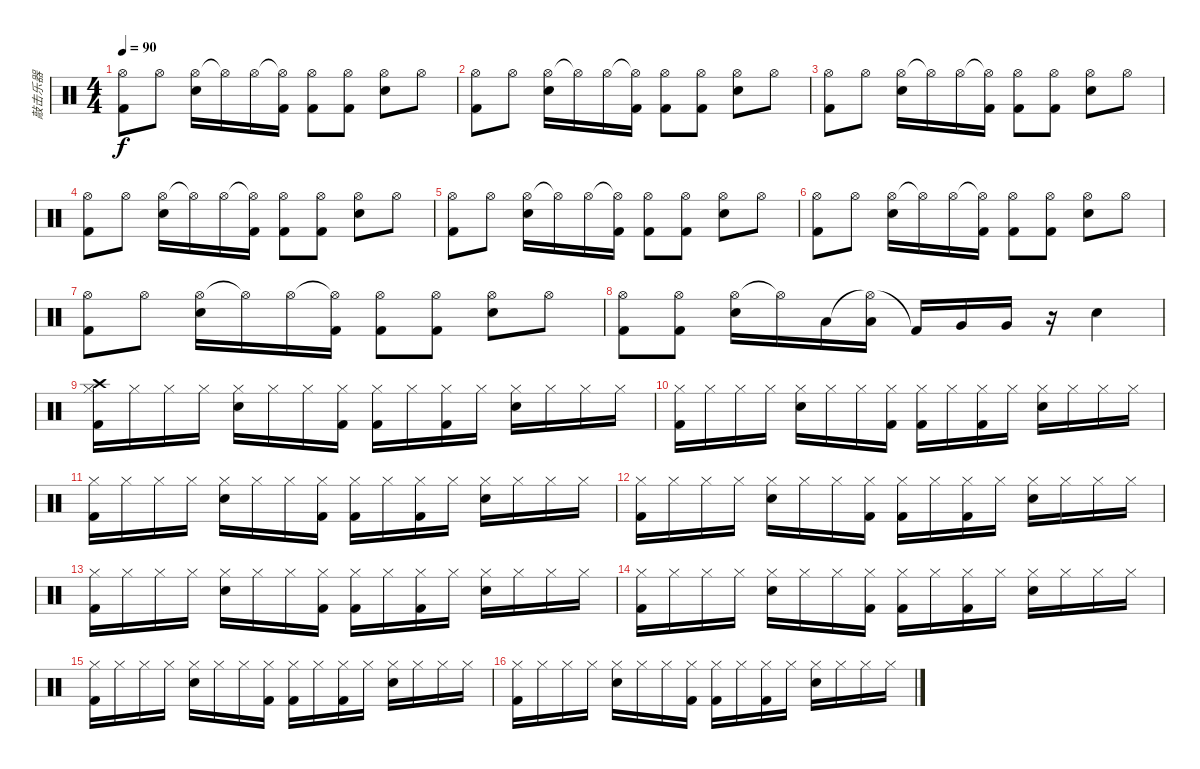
\track ("敲击乐器" "敲击乐器") {instrument percussion}
\staff {score}
\articulation defaults
\ts (4 4)
\tempo 90
\clef neutral
\ks c
("Hi-Hat (open)" "Kick (hit) 2").8{dy f} "Hi-Hat (open)".8 ("Hi-Hat (open)" "Electric Snare (hit)").16 "Hi-Hat (open)"{t}.16 "Hi-Hat (open)".16 ("Hi-Hat (open)"{t} "Kick (hit) 2").16 ("Hi-Hat (open)" "Kick (hit) 2").8 ("Hi-Hat (open)" "Kick (hit) 2").8 ("Hi-Hat (open)" "Electric Snare (hit)").8 "Hi-Hat (open)".8 |
("Hi-Hat (open)" "Kick (hit) 2").8 "Hi-Hat (open)".8 ("Hi-Hat (open)" "Electric Snare (hit)").16 "Hi-Hat (open)"{t}.16 "Hi-Hat (open)".16 ("Hi-Hat (open)"{t} "Kick (hit) 2").16 ("Hi-Hat (open)" "Kick (hit) 2").8 ("Hi-Hat (open)" "Kick (hit) 2").8 ("Hi-Hat (open)" "Electric Snare (hit)").8 "Hi-Hat (open)".8 |
("Hi-Hat (open)" "Kick (hit) 2").8 "Hi-Hat (open)".8 ("Hi-Hat (open)" "Electric Snare (hit)").16 "Hi-Hat (open)"{t}.16 "Hi-Hat (open)".16 ("Hi-Hat (open)"{t} "Kick (hit) 2").16 ("Hi-Hat (open)" "Kick (hit) 2").8 ("Hi-Hat (open)" "Kick (hit) 2").8 ("Hi-Hat (open)" "Electric Snare (hit)").8 "Hi-Hat (open)".8 |
("Hi-Hat (open)" "Kick (hit) 2").8 "Hi-Hat (open)".8 ("Hi-Hat (open)" "Electric Snare (hit)").16 "Hi-Hat (open)"{t}.16 "Hi-Hat (open)".16 ("Hi-Hat (open)"{t} "Kick (hit) 2").16 ("Hi-Hat (open)" "Kick (hit) 2").8 ("Hi-Hat (open)" "Kick (hit) 2").8 ("Hi-Hat (open)" "Electric Snare (hit)").8 "Hi-Hat (open)".8 |
("Hi-Hat (open)" "Kick (hit) 2").8 "Hi-Hat (open)".8 ("Hi-Hat (open)" "Electric Snare (hit)").16 "Hi-Hat (open)"{t}.16 "Hi-Hat (open)".16 ("Hi-Hat (open)"{t} "Kick (hit) 2").16 ("Hi-Hat (open)" "Kick (hit) 2").8 ("Hi-Hat (open)" "Kick (hit) 2").8 ("Hi-Hat (open)" "Electric Snare (hit)").8 "Hi-Hat (open)".8 |
("Hi-Hat (open)" "Kick (hit) 2").8 "Hi-Hat (open)".8 ("Hi-Hat (open)" "Electric Snare (hit)").16 "Hi-Hat (open)"{t}.16 "Hi-Hat (open)".16 ("Hi-Hat (open)"{t} "Kick (hit) 2").16 ("Hi-Hat (open)" "Kick (hit) 2").8 ("Hi-Hat (open)" "Kick (hit) 2").8 ("Hi-Hat (open)" "Electric Snare (hit)").8 "Hi-Hat (open)".8 |
("Hi-Hat (open)" "Kick (hit) 2").8 "Hi-Hat (open)".8 ("Hi-Hat (open)" "Electric Snare (hit)").16 "Hi-Hat (open)"{t}.16 "Hi-Hat (open)".16 ("Hi-Hat (open)"{t} "Kick (hit) 2").16 ("Hi-Hat (open)" "Kick (hit) 2").8 ("Hi-Hat (open)" "Kick (hit) 2").8 ("Hi-Hat (open)" "Electric Snare (hit)").8 "Hi-Hat (open)".8 |
("Hi-Hat (open)" "Kick (hit) 2").8 ("Hi-Hat (open)" "Kick (hit) 2").8 ("Hi-Hat (open)" "Electric Snare (hit)").16 "Hi-Hat (open)"{t}.16 "Low Tom (hit)".16 ("Hi-Hat (open)"{t} "Low Tom (hit)").16 "Kick (hit) 2"{t}.16 "Very Low Tom (hit)".16 "Very Low Tom (hit)".16 r.16 "Electric Snare (hit)".4 |
("Hi-Hat (closed)" "Kick (hit) 2" "Crash high (hit)").16 "Hi-Hat (closed)".16 "Hi-Hat (closed)".16 "Hi-Hat (closed)".16 ("Hi-Hat (closed)" "Electric Snare (hit)").16 "Hi-Hat (closed)".16 "Hi-Hat (closed)".16 ("Hi-Hat (closed)" "Kick (hit) 2").16 ("Hi-Hat (closed)" "Kick (hit) 2").16 "Hi-Hat (closed)".16 ("Hi-Hat (closed)" "Kick (hit) 2").16 "Hi-Hat (closed)".16 ("Hi-Hat (closed)" "Electric Snare (hit)").16 "Hi-Hat (closed)".16 "Hi-Hat (closed)".16 "Hi-Hat (closed)".16 |
("Hi-Hat (closed)" "Kick (hit) 2").16 "Hi-Hat (closed)".16 "Hi-Hat (closed)".16 "Hi-Hat (closed)".16 ("Hi-Hat (closed)" "Electric Snare (hit)").16 "Hi-Hat (closed)".16 "Hi-Hat (closed)".16 ("Hi-Hat (closed)" "Kick (hit) 2").16 ("Hi-Hat (closed)" "Kick (hit) 2").16 "Hi-Hat (closed)".16 ("Hi-Hat (closed)" "Kick (hit) 2").16 "Hi-Hat (closed)".16 ("Hi-Hat (closed)" "Electric Snare (hit)").16 "Hi-Hat (closed)".16 "Hi-Hat (closed)".16 "Hi-Hat (closed)".16 |
("Hi-Hat (closed)" "Kick (hit) 2").16 "Hi-Hat (closed)".16 "Hi-Hat (closed)".16 "Hi-Hat (closed)".16 ("Hi-Hat (closed)" "Electric Snare (hit)").16 "Hi-Hat (closed)".16 "Hi-Hat (closed)".16 ("Hi-Hat (closed)" "Kick (hit) 2").16 ("Hi-Hat (closed)" "Kick (hit) 2").16 "Hi-Hat (closed)".16 ("Hi-Hat (closed)" "Kick (hit) 2").16 "Hi-Hat (closed)".16 ("Hi-Hat (closed)" "Electric Snare (hit)").16 "Hi-Hat (closed)".16 "Hi-Hat (closed)".16 "Hi-Hat (closed)".16 |
("Hi-Hat (closed)" "Kick (hit) 2").16 "Hi-Hat (closed)".16 "Hi-Hat (closed)".16 "Hi-Hat (closed)".16 ("Hi-Hat (closed)" "Electric Snare (hit)").16 "Hi-Hat (closed)".16 "Hi-Hat (closed)".16 ("Hi-Hat (closed)" "Kick (hit) 2").16 ("Hi-Hat (closed)" "Kick (hit) 2").16 "Hi-Hat (closed)".16 ("Hi-Hat (closed)" "Kick (hit) 2").16 "Hi-Hat (closed)".16 ("Hi-Hat (closed)" "Electric Snare (hit)").16 "Hi-Hat (closed)".16 "Hi-Hat (closed)".16 "Hi-Hat (closed)".16 |
("Hi-Hat (closed)" "Kick (hit) 2").16 "Hi-Hat (closed)".16 "Hi-Hat (closed)".16 "Hi-Hat (closed)".16 ("Hi-Hat (closed)" "Electric Snare (hit)").16 "Hi-Hat (closed)".16 "Hi-Hat (closed)".16 ("Hi-Hat (closed)" "Kick (hit) 2").16 ("Hi-Hat (closed)" "Kick (hit) 2").16 "Hi-Hat (closed)".16 ("Hi-Hat (closed)" "Kick (hit) 2").16 "Hi-Hat (closed)".16 ("Hi-Hat (closed)" "Electric Snare (hit)").16 "Hi-Hat (closed)".16 "Hi-Hat (closed)".16 "Hi-Hat (closed)".16 |
("Hi-Hat (closed)" "Kick (hit) 2").16 "Hi-Hat (closed)".16 "Hi-Hat (closed)".16 "Hi-Hat (closed)".16 ("Hi-Hat (closed)" "Electric Snare (hit)").16 "Hi-Hat (closed)".16 "Hi-Hat (closed)".16 ("Hi-Hat (closed)" "Kick (hit) 2").16 ("Hi-Hat (closed)" "Kick (hit) 2").16 "Hi-Hat (closed)".16 ("Hi-Hat (closed)" "Kick (hit) 2").16 "Hi-Hat (closed)".16 ("Hi-Hat (closed)" "Electric Snare (hit)").16 "Hi-Hat (closed)".16 "Hi-Hat (closed)".16 "Hi-Hat (closed)".16 |
("Hi-Hat (closed)" "Kick (hit) 2").16 "Hi-Hat (closed)".16 "Hi-Hat (closed)".16 "Hi-Hat (closed)".16 ("Hi-Hat (closed)" "Electric Snare (hit)").16 "Hi-Hat (closed)".16 "Hi-Hat (closed)".16 ("Hi-Hat (closed)" "Kick (hit) 2").16 ("Hi-Hat (closed)" "Kick (hit) 2").16 "Hi-Hat (closed)".16 ("Hi-Hat (closed)" "Kick (hit) 2").16 "Hi-Hat (closed)".16 ("Hi-Hat (closed)" "Electric Snare (hit)").16 "Hi-Hat (closed)".16 "Hi-Hat (closed)".16 "Hi-Hat (closed)".16 |
("Hi-Hat (closed)" "Kick (hit) 2").16 "Hi-Hat (closed)".16 "Hi-Hat (closed)".16 "Hi-Hat (closed)".16 ("Hi-Hat (closed)" "Electric Snare (hit)").16 "Hi-Hat (closed)".16 "Hi-Hat (closed)".16 ("Hi-Hat (closed)" "Kick (hit) 2").16 ("Hi-Hat (closed)" "Kick (hit) 2").16 "Hi-Hat (closed)".16 ("Hi-Hat (closed)" "Kick (hit) 2").16 "Hi-Hat (closed)".16 ("Hi-Hat (closed)" "Electric Snare (hit)").16 "Hi-Hat (closed)".16 "Hi-Hat (closed)".16 "Hi-Hat (closed)".16
